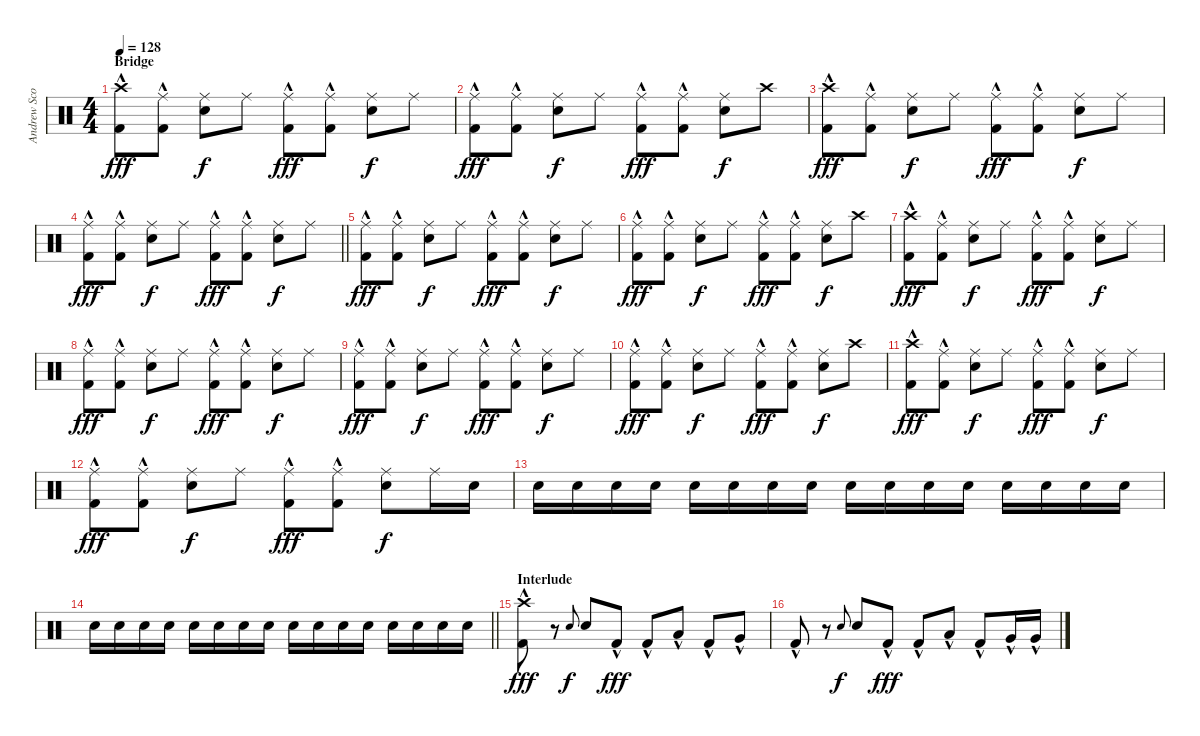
\track ("Andrew Scott" "Andrew Sco") {instrument percussion}
\staff {score}
\articulation defaults
\ts (4 4)
\section ("" "Bridge")
\tempo 128
\clef neutral
\ks c
("Crash high (hit)" "Kick (hit) 2"{hac}).8{dy fff} ("Ride (middle)" "Kick (hit) 2"{hac}).8 ("Ride (middle)" "Snare (hit) 2").8{dy f} "Ride (middle)".8 ("Ride (middle)" "Kick (hit) 2"{hac}).8{dy fff} ("Ride (middle)" "Kick (hit) 2"{hac}).8 ("Ride (middle)" "Snare (hit) 2").8{dy f} "Ride (middle)".8 |
("Ride (middle)" "Kick (hit) 2"{hac}).8{dy fff} ("Ride (middle)" "Kick (hit) 2"{hac}).8 ("Ride (middle)" "Snare (hit) 2").8{dy f} "Ride (middle)".8 ("Ride (middle)" "Kick (hit) 2"{hac}).8{dy fff} ("Ride (middle)" "Kick (hit) 2"{hac}).8 ("Ride (middle)" "Snare (hit) 2").8{dy f} "Crash high (hit)".8 |
("Crash high (hit)" "Kick (hit) 2"{hac}).8{dy fff} ("Ride (middle)" "Kick (hit) 2"{hac}).8 ("Ride (middle)" "Snare (hit) 2").8{dy f} "Ride (middle)".8 ("Ride (middle)" "Kick (hit) 2"{hac}).8{dy fff} ("Ride (middle)" "Kick (hit) 2"{hac}).8 ("Ride (middle)" "Snare (hit) 2").8{dy f} "Ride (middle)".8 |
\barLineRight lightlight
("Ride (middle)" "Kick (hit) 2"{hac}).8{dy fff} ("Ride (middle)" "Kick (hit) 2"{hac}).8 ("Ride (middle)" "Snare (hit) 2").8{dy f} "Ride (middle)".8 ("Ride (middle)" "Kick (hit) 2"{hac}).8{dy fff} ("Ride (middle)" "Kick (hit) 2"{hac}).8 ("Ride (middle)" "Snare (hit) 2").8{dy f} "Ride (middle)".8 |
("Ride (middle)" "Kick (hit) 2"{hac}).8{dy fff} ("Ride (middle)" "Kick (hit) 2"{hac}).8 ("Ride (middle)" "Snare (hit) 2").8{dy f} "Ride (middle)".8 ("Ride (middle)" "Kick (hit) 2"{hac}).8{dy fff} ("Ride (middle)" "Kick (hit) 2"{hac}).8 ("Ride (middle)" "Snare (hit) 2").8{dy f} "Ride (middle)".8 |
("Ride (middle)" "Kick (hit) 2"{hac}).8{dy fff} ("Ride (middle)" "Kick (hit) 2"{hac}).8 ("Ride (middle)" "Snare (hit) 2").8{dy f} "Ride (middle)".8 ("Ride (middle)" "Kick (hit) 2"{hac}).8{dy fff} ("Ride (middle)" "Kick (hit) 2"{hac}).8 ("Ride (middle)" "Snare (hit) 2").8{dy f} "Crash high (hit)".8 |
("Crash high (hit)" "Kick (hit) 2"{hac}).8{dy fff} ("Ride (middle)" "Kick (hit) 2"{hac}).8 ("Ride (middle)" "Snare (hit) 2").8{dy f} "Ride (middle)".8 ("Ride (middle)" "Kick (hit) 2"{hac}).8{dy fff} ("Ride (middle)" "Kick (hit) 2"{hac}).8 ("Ride (middle)" "Snare (hit) 2").8{dy f} "Ride (middle)".8 |
("Ride (middle)" "Kick (hit) 2"{hac}).8{dy fff} ("Ride (middle)" "Kick (hit) 2"{hac}).8 ("Ride (middle)" "Snare (hit) 2").8{dy f} "Ride (middle)".8 ("Ride (middle)" "Kick (hit) 2"{hac}).8{dy fff} ("Ride (middle)" "Kick (hit) 2"{hac}).8 ("Ride (middle)" "Snare (hit) 2").8{dy f} "Ride (middle)".8 |
("Ride (middle)" "Kick (hit) 2"{hac}).8{dy fff} ("Ride (middle)" "Kick (hit) 2"{hac}).8 ("Ride (middle)" "Snare (hit) 2").8{dy f} "Ride (middle)".8 ("Ride (middle)" "Kick (hit) 2"{hac}).8{dy fff} ("Ride (middle)" "Kick (hit) 2"{hac}).8 ("Ride (middle)" "Snare (hit) 2").8{dy f} "Ride (middle)".8 |
("Ride (middle)" "Kick (hit) 2"{hac}).8{dy fff} ("Ride (middle)" "Kick (hit) 2"{hac}).8 ("Ride (middle)" "Snare (hit) 2").8{dy f} "Ride (middle)".8 ("Ride (middle)" "Kick (hit) 2"{hac}).8{dy fff} ("Ride (middle)" "Kick (hit) 2"{hac}).8 ("Ride (middle)" "Snare (hit) 2").8{dy f} "Crash high (hit)".8 |
("Crash high (hit)" "Kick (hit) 2"{hac}).8{dy fff} ("Ride (middle)" "Kick (hit) 2"{hac}).8 ("Ride (middle)" "Snare (hit) 2").8{dy f} "Ride (middle)".8 ("Ride (middle)" "Kick (hit) 2"{hac}).8{dy fff} ("Ride (middle)" "Kick (hit) 2"{hac}).8 ("Ride (middle)" "Snare (hit) 2").8{dy f} "Ride (middle)".8 |
("Ride (middle)" "Kick (hit) 2"{hac}).8{dy fff} ("Ride (middle)" "Kick (hit) 2"{hac}).8 ("Ride (middle)" "Snare (hit) 2").8{dy f} "Ride (middle)".8 ("Ride (middle)" "Kick (hit) 2"{hac}).8{dy fff} ("Ride (middle)" "Kick (hit) 2"{hac}).8 ("Ride (middle)" "Snare (hit) 2").8{dy f} "Ride (middle)".16 "Snare (hit) 2".16 |
"Snare (hit) 2".16{volume 3} "Snare (hit) 2".16{volume 8} "Snare (hit) 2".16 "Snare (hit) 2".16 "Snare (hit) 2".16 "Snare (hit) 2".16 "Snare (hit) 2".16 "Snare (hit) 2".16 "Snare (hit) 2".16 "Snare (hit) 2".16 "Snare (hit) 2".16 "Snare (hit) 2".16 "Snare (hit) 2".16 "Snare (hit) 2".16 "Snare (hit) 2".16 "Snare (hit) 2".16 |
\barLineRight lightlight "Snare (hit) 2".16 "Snare (hit) 2".16 "Snare (hit) 2".16 "Snare (hit) 2".16 "Snare (hit) 2".16 "Snare (hit) 2".16 "Snare (hit) 2".16 "Snare (hit) 2".16 "Snare (hit) 2".16 "Snare (hit) 2".16 "Snare (hit) 2".16 "Snare (hit) 2".16 "Snare (hit) 2".16 "Snare (hit) 2".16 "Snare (hit) 2".16 "Snare (hit) 2".16
|
\section ("" "Interlude")
("Crash high (hit)" "Kick (hit) 2"{hac}).8{dy fff} r.8 "Snare (hit) 2".8{gr onbeat dy f} "Snare (hit) 2".8 "Kick (hit) 2"{hac}.8{dy fff} "Kick (hit) 2"{hac}.8 "Low Tom (hit)"{hac}.8 "Kick (hit) 2"{hac}.8 "Very Low Tom (hit)"{hac}.8 |
"Kick (hit) 2"{hac}.8 r.8 "Snare (hit) 2".8{gr onbeat dy f} "Snare (hit) 2".8 "Kick (hit) 2"{hac}.8{dy fff} "Kick (hit) 2"{hac}.8 "Low Tom (hit)"{hac}.8 "Kick (hit) 2"{hac}.8 "Very Low Tom (hit)"{hac}.16 "Very Low Tom (hit)"{hac}.16
